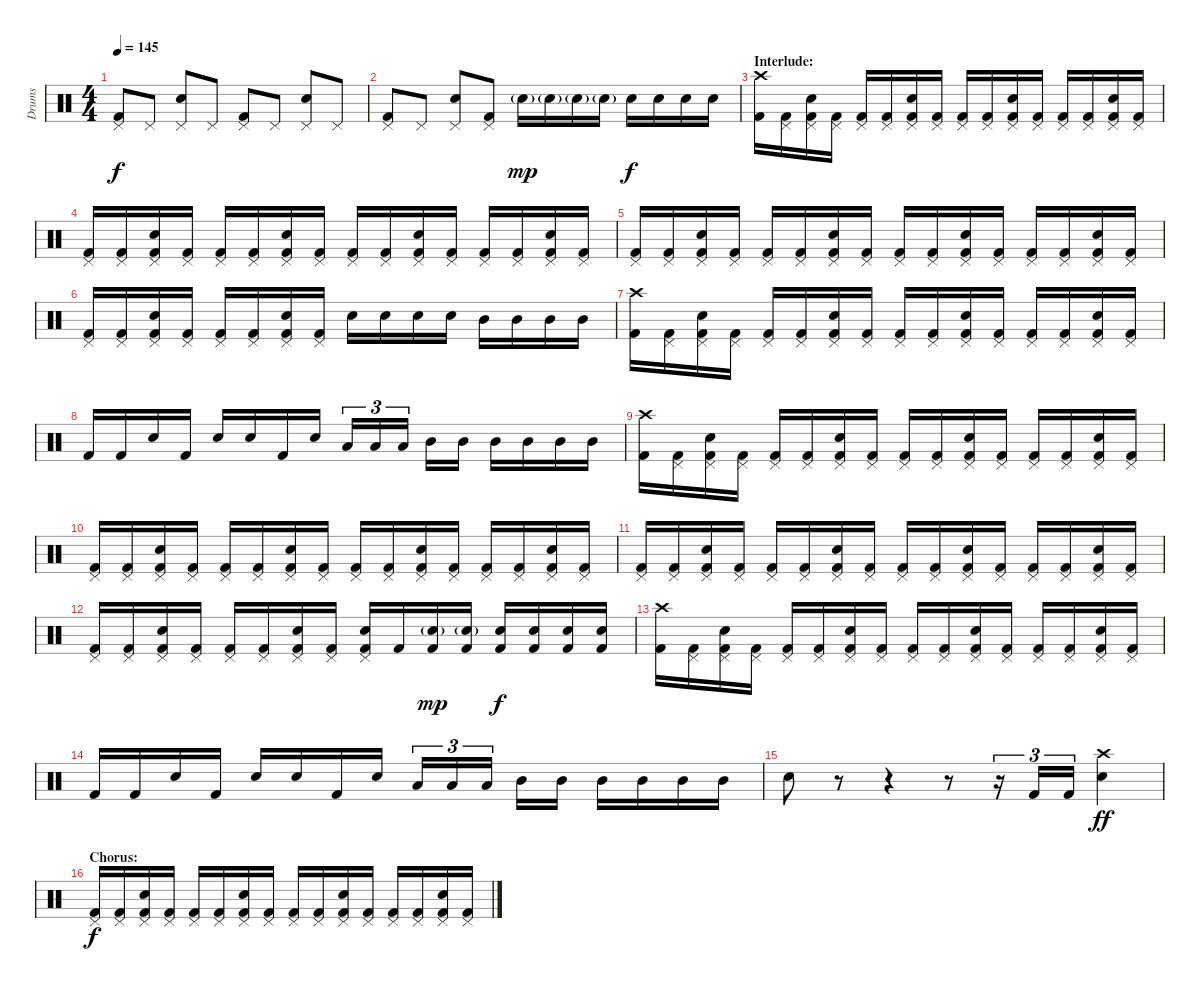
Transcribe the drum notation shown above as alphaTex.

\track ("Drums" "Drums") {instrument percussion}
\staff {score}
\articulation defaults
\ts (4 4)
\tempo 145
\clef neutral
\ks c
("Pedal Hi-Hat (hit)" "Kick (hit) 2").8{dy f} "Pedal Hi-Hat (hit)".8 ("Pedal Hi-Hat (hit)" "Electric Snare (hit)").8 "Pedal Hi-Hat (hit)".8 ("Pedal Hi-Hat (hit)" "Kick (hit) 2").8 "Pedal Hi-Hat (hit)".8 ("Pedal Hi-Hat (hit)" "Electric Snare (hit)").8 "Pedal Hi-Hat (hit)".8 |
("Pedal Hi-Hat (hit)" "Kick (hit) 2").8 "Pedal Hi-Hat (hit)".8 ("Pedal Hi-Hat (hit)" "Electric Snare (hit)").8 ("Pedal Hi-Hat (hit)" "Kick (hit) 2").8 "Electric Snare (hit)"{g}.16{dy mp} "Electric Snare (hit)"{g}.16 "Electric Snare (hit)"{g}.16 "Electric Snare (hit)"{g}.16 "Electric Snare (hit)".16{dy f} "Electric Snare (hit)".16 "Electric Snare (hit)".16 "Electric Snare (hit)".16 |
\section ("" "Interlude:")
("Crash high (hit)" "Kick (hit) 2").16 ("Pedal Hi-Hat (hit)" "Kick (hit) 2").16 ("Pedal Hi-Hat (hit)" "Electric Snare (hit)" "Kick (hit) 2").16 ("Pedal Hi-Hat (hit)" "Kick (hit) 2").16 ("Pedal Hi-Hat (hit)" "Kick (hit) 2").16 ("Pedal Hi-Hat (hit)" "Kick (hit) 2").16 ("Pedal Hi-Hat (hit)" "Electric Snare (hit)" "Kick (hit) 2").16 ("Pedal Hi-Hat (hit)" "Kick (hit) 2").16 ("Pedal Hi-Hat (hit)" "Kick (hit) 2").16 ("Pedal Hi-Hat (hit)" "Kick (hit) 2").16 ("Pedal Hi-Hat (hit)" "Electric Snare (hit)" "Kick (hit) 2").16 ("Pedal Hi-Hat (hit)" "Kick (hit) 2").16 ("Pedal Hi-Hat (hit)" "Kick (hit) 2").16 ("Pedal Hi-Hat (hit)" "Kick (hit) 2").16 ("Pedal Hi-Hat (hit)" "Electric Snare (hit)" "Kick (hit) 2").16 ("Pedal Hi-Hat (hit)" "Kick (hit) 2").16 |
("Pedal Hi-Hat (hit)" "Kick (hit) 2").16 ("Pedal Hi-Hat (hit)" "Kick (hit) 2").16 ("Pedal Hi-Hat (hit)" "Electric Snare (hit)" "Kick (hit) 2").16 ("Pedal Hi-Hat (hit)" "Kick (hit) 2").16 ("Pedal Hi-Hat (hit)" "Kick (hit) 2").16 ("Pedal Hi-Hat (hit)" "Kick (hit) 2").16 ("Pedal Hi-Hat (hit)" "Electric Snare (hit)" "Kick (hit) 2").16 ("Pedal Hi-Hat (hit)" "Kick (hit) 2").16 ("Pedal Hi-Hat (hit)" "Kick (hit) 2").16 ("Pedal Hi-Hat (hit)" "Kick (hit) 2").16 ("Pedal Hi-Hat (hit)" "Electric Snare (hit)" "Kick (hit) 2").16 ("Pedal Hi-Hat (hit)" "Kick (hit) 2").16 ("Pedal Hi-Hat (hit)" "Kick (hit) 2").16 ("Pedal Hi-Hat (hit)" "Kick (hit) 2").16 ("Pedal Hi-Hat (hit)" "Electric Snare (hit)" "Kick (hit) 2").16 ("Pedal Hi-Hat (hit)" "Kick (hit) 2").16 |
("Pedal Hi-Hat (hit)" "Kick (hit) 2").16 ("Pedal Hi-Hat (hit)" "Kick (hit) 2").16 ("Pedal Hi-Hat (hit)" "Electric Snare (hit)" "Kick (hit) 2").16 ("Pedal Hi-Hat (hit)" "Kick (hit) 2").16 ("Pedal Hi-Hat (hit)" "Kick (hit) 2").16 ("Pedal Hi-Hat (hit)" "Kick (hit) 2").16 ("Pedal Hi-Hat (hit)" "Electric Snare (hit)" "Kick (hit) 2").16 ("Pedal Hi-Hat (hit)" "Kick (hit) 2").16 ("Pedal Hi-Hat (hit)" "Kick (hit) 2").16 ("Pedal Hi-Hat (hit)" "Kick (hit) 2").16 ("Pedal Hi-Hat (hit)" "Electric Snare (hit)" "Kick (hit) 2").16 ("Pedal Hi-Hat (hit)" "Kick (hit) 2").16 ("Pedal Hi-Hat (hit)" "Kick (hit) 2").16 ("Pedal Hi-Hat (hit)" "Kick (hit) 2").16 ("Pedal Hi-Hat (hit)" "Electric Snare (hit)" "Kick (hit) 2").16 ("Pedal Hi-Hat (hit)" "Kick (hit) 2").16 |
("Pedal Hi-Hat (hit)" "Kick (hit) 2").16 ("Pedal Hi-Hat (hit)" "Kick (hit) 2").16 ("Pedal Hi-Hat (hit)" "Electric Snare (hit)" "Kick (hit) 2").16 ("Pedal Hi-Hat (hit)" "Kick (hit) 2").16 ("Pedal Hi-Hat (hit)" "Kick (hit) 2").16 ("Pedal Hi-Hat (hit)" "Kick (hit) 2").16 ("Pedal Hi-Hat (hit)" "Electric Snare (hit)" "Kick (hit) 2").16 ("Pedal Hi-Hat (hit)" "Kick (hit) 2").16 "Electric Snare (hit)".16 "Electric Snare (hit)".16 "Electric Snare (hit)".16 "Electric Snare (hit)".16 "Mid Tom (hit)".16 "Mid Tom (hit)".16 "Mid Tom (hit)".16 "Mid Tom (hit)".16 |
("Crash high (hit)" "Kick (hit) 2").16 ("Pedal Hi-Hat (hit)" "Kick (hit) 2").16 ("Pedal Hi-Hat (hit)" "Electric Snare (hit)" "Kick (hit) 2").16 ("Pedal Hi-Hat (hit)" "Kick (hit) 2").16 ("Pedal Hi-Hat (hit)" "Kick (hit) 2").16 ("Pedal Hi-Hat (hit)" "Kick (hit) 2").16 ("Pedal Hi-Hat (hit)" "Electric Snare (hit)" "Kick (hit) 2").16 ("Pedal Hi-Hat (hit)" "Kick (hit) 2").16 ("Pedal Hi-Hat (hit)" "Kick (hit) 2").16 ("Pedal Hi-Hat (hit)" "Kick (hit) 2").16 ("Pedal Hi-Hat (hit)" "Electric Snare (hit)" "Kick (hit) 2").16 ("Pedal Hi-Hat (hit)" "Kick (hit) 2").16 ("Pedal Hi-Hat (hit)" "Kick (hit) 2").16 ("Pedal Hi-Hat (hit)" "Kick (hit) 2").16 ("Pedal Hi-Hat (hit)" "Electric Snare (hit)" "Kick (hit) 2").16 ("Pedal Hi-Hat (hit)" "Kick (hit) 2").16 |
"Kick (hit) 2".16 "Kick (hit) 2".16 "Electric Snare (hit)".16 "Kick (hit) 2".16 "Electric Snare (hit)".16 "Electric Snare (hit)".16 "Kick (hit) 2".16 "Electric Snare (hit)".16 "Low Tom (hit)".16{tu (3 2)} "Low Tom (hit)".16{tu (3 2)} "Low Tom (hit)".16{tu (3 2)} "Mid Tom (hit)".16 "Mid Tom (hit)".16 "Mid Tom (hit)".16 "Mid Tom (hit)".16 "Mid Tom (hit)".16 "Mid Tom (hit)".16 |
("Crash high (hit)" "Kick (hit) 2").16 ("Pedal Hi-Hat (hit)" "Kick (hit) 2").16 ("Pedal Hi-Hat (hit)" "Electric Snare (hit)" "Kick (hit) 2").16 ("Pedal Hi-Hat (hit)" "Kick (hit) 2").16 ("Pedal Hi-Hat (hit)" "Kick (hit) 2").16 ("Pedal Hi-Hat (hit)" "Kick (hit) 2").16 ("Pedal Hi-Hat (hit)" "Electric Snare (hit)" "Kick (hit) 2").16 ("Pedal Hi-Hat (hit)" "Kick (hit) 2").16 ("Pedal Hi-Hat (hit)" "Kick (hit) 2").16 ("Pedal Hi-Hat (hit)" "Kick (hit) 2").16 ("Pedal Hi-Hat (hit)" "Electric Snare (hit)" "Kick (hit) 2").16 ("Pedal Hi-Hat (hit)" "Kick (hit) 2").16 ("Pedal Hi-Hat (hit)" "Kick (hit) 2").16 ("Pedal Hi-Hat (hit)" "Kick (hit) 2").16 ("Pedal Hi-Hat (hit)" "Electric Snare (hit)" "Kick (hit) 2").16 ("Pedal Hi-Hat (hit)" "Kick (hit) 2").16 |
("Pedal Hi-Hat (hit)" "Kick (hit) 2").16 ("Pedal Hi-Hat (hit)" "Kick (hit) 2").16 ("Pedal Hi-Hat (hit)" "Electric Snare (hit)" "Kick (hit) 2").16 ("Pedal Hi-Hat (hit)" "Kick (hit) 2").16 ("Pedal Hi-Hat (hit)" "Kick (hit) 2").16 ("Pedal Hi-Hat (hit)" "Kick (hit) 2").16 ("Pedal Hi-Hat (hit)" "Electric Snare (hit)" "Kick (hit) 2").16 ("Pedal Hi-Hat (hit)" "Kick (hit) 2").16 ("Pedal Hi-Hat (hit)" "Kick (hit) 2").16 ("Pedal Hi-Hat (hit)" "Kick (hit) 2").16 ("Pedal Hi-Hat (hit)" "Electric Snare (hit)" "Kick (hit) 2").16 ("Pedal Hi-Hat (hit)" "Kick (hit) 2").16 ("Pedal Hi-Hat (hit)" "Kick (hit) 2").16 ("Pedal Hi-Hat (hit)" "Kick (hit) 2").16 ("Pedal Hi-Hat (hit)" "Electric Snare (hit)" "Kick (hit) 2").16 ("Pedal Hi-Hat (hit)" "Kick (hit) 2").16 |
("Pedal Hi-Hat (hit)" "Kick (hit) 2").16 ("Pedal Hi-Hat (hit)" "Kick (hit) 2").16 ("Pedal Hi-Hat (hit)" "Electric Snare (hit)" "Kick (hit) 2").16 ("Pedal Hi-Hat (hit)" "Kick (hit) 2").16 ("Pedal Hi-Hat (hit)" "Kick (hit) 2").16 ("Pedal Hi-Hat (hit)" "Kick (hit) 2").16 ("Pedal Hi-Hat (hit)" "Electric Snare (hit)" "Kick (hit) 2").16 ("Pedal Hi-Hat (hit)" "Kick (hit) 2").16 ("Pedal Hi-Hat (hit)" "Kick (hit) 2").16 ("Pedal Hi-Hat (hit)" "Kick (hit) 2").16 ("Pedal Hi-Hat (hit)" "Electric Snare (hit)" "Kick (hit) 2").16 ("Pedal Hi-Hat (hit)" "Kick (hit) 2").16 ("Pedal Hi-Hat (hit)" "Kick (hit) 2").16 ("Pedal Hi-Hat (hit)" "Kick (hit) 2").16 ("Pedal Hi-Hat (hit)" "Electric Snare (hit)" "Kick (hit) 2").16 ("Pedal Hi-Hat (hit)" "Kick (hit) 2").16 |
("Pedal Hi-Hat (hit)" "Kick (hit) 2").16 ("Pedal Hi-Hat (hit)" "Kick (hit) 2").16 ("Pedal Hi-Hat (hit)" "Electric Snare (hit)" "Kick (hit) 2").16 ("Pedal Hi-Hat (hit)" "Kick (hit) 2").16 ("Pedal Hi-Hat (hit)" "Kick (hit) 2").16 ("Pedal Hi-Hat (hit)" "Kick (hit) 2").16 ("Pedal Hi-Hat (hit)" "Electric Snare (hit)" "Kick (hit) 2").16 ("Pedal Hi-Hat (hit)" "Kick (hit) 2").16 ("Pedal Hi-Hat (hit)" "Electric Snare (hit)" "Kick (hit) 2").16 "Kick (hit) 2".16 ("Electric Snare (hit)"{g} "Kick (hit) 2").16{dy mp} ("Electric Snare (hit)"{g} "Kick (hit) 2").16 ("Electric Snare (hit)" "Kick (hit) 2").16{dy f} ("Electric Snare (hit)" "Kick (hit) 2").16 ("Electric Snare (hit)" "Kick (hit) 2").16 ("Electric Snare (hit)" "Kick (hit) 2").16 |
("Crash high (hit)" "Kick (hit) 2").16 ("Pedal Hi-Hat (hit)" "Kick (hit) 2").16 ("Pedal Hi-Hat (hit)" "Electric Snare (hit)" "Kick (hit) 2").16 ("Pedal Hi-Hat (hit)" "Kick (hit) 2").16 ("Pedal Hi-Hat (hit)" "Kick (hit) 2").16 ("Pedal Hi-Hat (hit)" "Kick (hit) 2").16 ("Pedal Hi-Hat (hit)" "Electric Snare (hit)" "Kick (hit) 2").16 ("Pedal Hi-Hat (hit)" "Kick (hit) 2").16 ("Pedal Hi-Hat (hit)" "Kick (hit) 2").16 ("Pedal Hi-Hat (hit)" "Kick (hit) 2").16 ("Pedal Hi-Hat (hit)" "Electric Snare (hit)" "Kick (hit) 2").16 ("Pedal Hi-Hat (hit)" "Kick (hit) 2").16 ("Pedal Hi-Hat (hit)" "Kick (hit) 2").16 ("Pedal Hi-Hat (hit)" "Kick (hit) 2").16 ("Pedal Hi-Hat (hit)" "Electric Snare (hit)" "Kick (hit) 2").16 ("Pedal Hi-Hat (hit)" "Kick (hit) 2").16 |
"Kick (hit) 2".16 "Kick (hit) 2".16 "Electric Snare (hit)".16 "Kick (hit) 2".16 "Electric Snare (hit)".16 "Electric Snare (hit)".16 "Kick (hit) 2".16 "Electric Snare (hit)".16 "Low Tom (hit)".16{tu (3 2)} "Low Tom (hit)".16{tu (3 2)} "Low Tom (hit)".16{tu (3 2)} "Mid Tom (hit)".16 "Mid Tom (hit)".16 "Mid Tom (hit)".16 "Mid Tom (hit)".16 "Mid Tom (hit)".16 "Mid Tom (hit)".16 |
"Electric Snare (hit)".8 r.8 r.4 r.8 r.16{tu (3 2)} "Kick (hit) 2".16{tu (3 2)} "Kick (hit) 2".16{tu (3 2)} ("Crash high (hit)" "Electric Snare (hit)").4{dy ff} |
\section ("" "Chorus:")
("Pedal Hi-Hat (hit)" "Kick (hit) 2").16{dy f} ("Pedal Hi-Hat (hit)" "Kick (hit) 2").16 ("Pedal Hi-Hat (hit)" "Electric Snare (hit)" "Kick (hit) 2").16 ("Pedal Hi-Hat (hit)" "Kick (hit) 2").16 ("Pedal Hi-Hat (hit)" "Kick (hit) 2").16 ("Pedal Hi-Hat (hit)" "Kick (hit) 2").16 ("Pedal Hi-Hat (hit)" "Electric Snare (hit)" "Kick (hit) 2").16 ("Pedal Hi-Hat (hit)" "Kick (hit) 2").16 ("Pedal Hi-Hat (hit)" "Kick (hit) 2").16 ("Pedal Hi-Hat (hit)" "Kick (hit) 2").16 ("Pedal Hi-Hat (hit)" "Electric Snare (hit)" "Kick (hit) 2").16 ("Pedal Hi-Hat (hit)" "Kick (hit) 2").16 ("Pedal Hi-Hat (hit)" "Kick (hit) 2").16 ("Pedal Hi-Hat (hit)" "Kick (hit) 2").16 ("Pedal Hi-Hat (hit)" "Electric Snare (hit)" "Kick (hit) 2").16 ("Pedal Hi-Hat (hit)" "Kick (hit) 2").16
